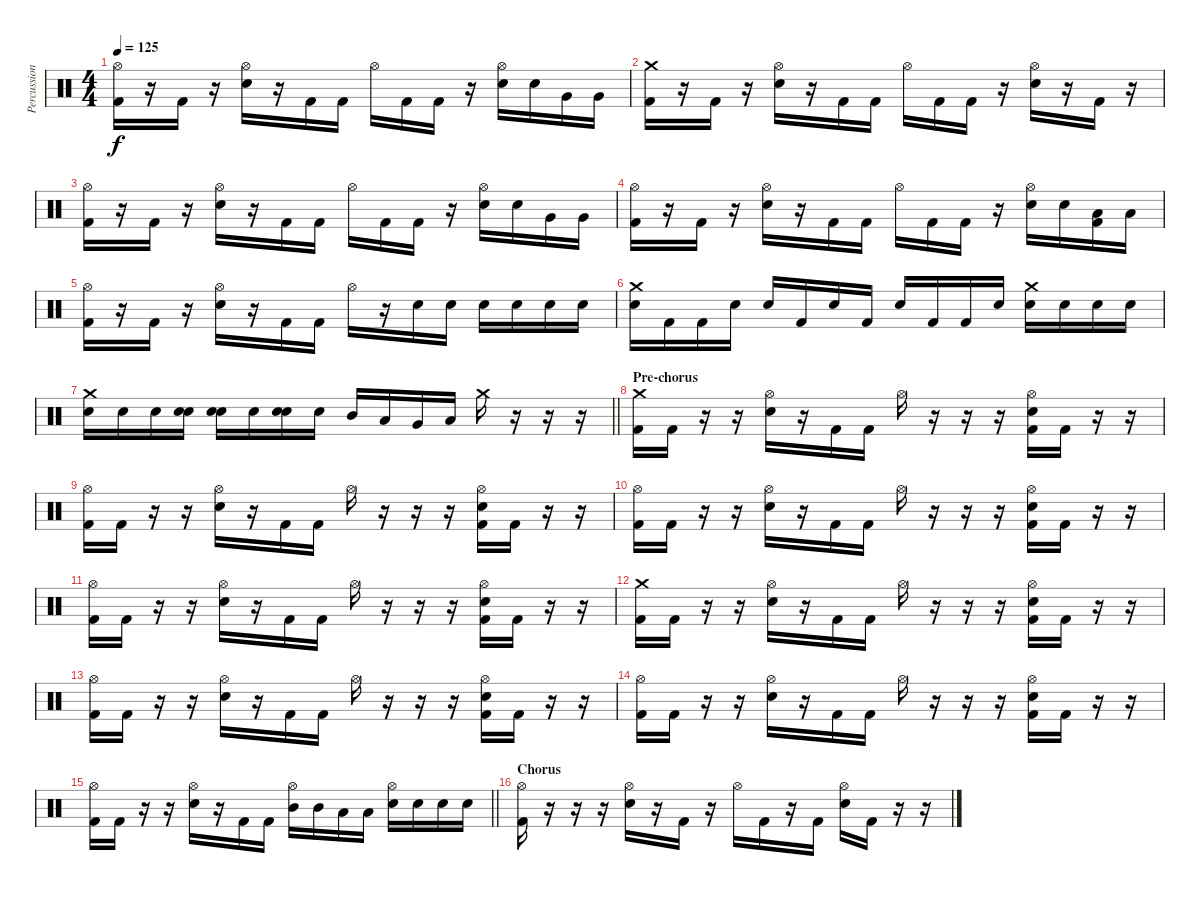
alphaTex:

\track ("Percussion" "Percussion") {instrument percussion}
\staff {score}
\articulation defaults
\ts (4 4)
\tempo 125
\clef neutral
\ks c
("Hi-Hat (open)" "Kick (hit) 2").16{dy f} r.16 "Kick (hit) 2".16 r.16 ("Hi-Hat (open)" "Electric Snare (hit)").16 r.16 "Kick (hit) 2".16 "Kick (hit) 2".16 "Hi-Hat (open)".16 "Kick (hit) 2".16 "Kick (hit) 2".16 r.16 ("Hi-Hat (open)" "Electric Snare (hit)").16 "Electric Snare (hit)".16 "Very Low Tom (hit)".16 "Very Low Tom (hit)".16 |
("Crash medium (hit)" "Kick (hit) 2").16 r.16 "Kick (hit) 2".16 r.16 ("Hi-Hat (open)" "Electric Snare (hit)").16 r.16 "Kick (hit) 2".16 "Kick (hit) 2".16 "Hi-Hat (open)".16 "Kick (hit) 2".16 "Kick (hit) 2".16 r.16 ("Hi-Hat (open)" "Electric Snare (hit)").16 r.16 "Kick (hit) 2".16 r.16 |
("Hi-Hat (open)" "Kick (hit) 2").16 r.16 "Kick (hit) 2".16 r.16 ("Hi-Hat (open)" "Electric Snare (hit)").16 r.16 "Kick (hit) 2".16 "Kick (hit) 2".16 "Hi-Hat (open)".16 "Kick (hit) 2".16 "Kick (hit) 2".16 r.16 ("Hi-Hat (open)" "Electric Snare (hit)").16 "Electric Snare (hit)".16 "Very Low Tom (hit)".16 "Very Low Tom (hit)".16 |
("Hi-Hat (open)" "Kick (hit) 2").16 r.16 "Kick (hit) 2".16 r.16 ("Hi-Hat (open)" "Electric Snare (hit)").16 r.16 "Kick (hit) 2".16 "Kick (hit) 2".16 "Hi-Hat (open)".16 "Kick (hit) 2".16 "Kick (hit) 2".16 r.16 ("Hi-Hat (open)" "Electric Snare (hit)").16 "Electric Snare (hit)".16 ("Low Tom (hit)" "Kick (hit) 2").16 "Low Tom (hit)".16 |
("Hi-Hat (open)" "Kick (hit) 2").16 r.16 "Kick (hit) 2".16 r.16 ("Hi-Hat (open)" "Electric Snare (hit)").16 r.16 "Kick (hit) 2".16 "Kick (hit) 2".16 "Hi-Hat (open)".16 r.16 "Electric Snare (hit)".16 "Electric Snare (hit)".16 "Electric Snare (hit)".16 "Electric Snare (hit)".16 "Electric Snare (hit)".16 "Electric Snare (hit)".16 |
("Crash medium (hit)" "Electric Snare (hit)").16 "Kick (hit) 2".16 "Kick (hit) 2".16 "Electric Snare (hit)".16 "Electric Snare (hit)".16 "Kick (hit) 2".16 "Electric Snare (hit)".16 "Kick (hit) 2".16 "Electric Snare (hit)".16 "Kick (hit) 2".16 "Kick (hit) 2".16 "Electric Snare (hit)".16 ("Crash medium (hit)" "Electric Snare (hit)").16 "Electric Snare (hit)".16 "Electric Snare (hit)".16 "Electric Snare (hit)".16 |
\barLineRight lightlight
("Crash medium (hit)" "Electric Snare (hit)").16 "Electric Snare (hit)".16 "Electric Snare (hit)".16 ("Electric Snare (hit)" "Electric Snare (hit)").16 ("Electric Snare (hit)" "Electric Snare (hit)").16 "Electric Snare (hit)".16 ("Electric Snare (hit)" "Electric Snare (hit)").16 "Electric Snare (hit)".16 "Mid Tom (hit)".16 "Low Tom (hit)".16 "Very Low Tom (hit)".16 "Low Floor Tom (hit)".16 "Crash medium (hit)".16 r.16 r.16 r.16 |
\section ("" "Pre-chorus")
("Crash medium (hit)" "Kick (hit) 2").16 "Kick (hit) 2".16 r.16 r.16 ("Hi-Hat (open)" "Electric Snare (hit)").16 r.16 "Kick (hit) 2".16 "Kick (hit) 2".16 "Hi-Hat (open)".16 r.16 r.16 r.16 ("Hi-Hat (open)" "Electric Snare (hit)" "Kick (hit) 2").16 "Kick (hit) 2".16 r.16 r.16 |
("Hi-Hat (open)" "Kick (hit) 2").16 "Kick (hit) 2".16 r.16 r.16 ("Hi-Hat (open)" "Electric Snare (hit)").16 r.16 "Kick (hit) 2".16 "Kick (hit) 2".16 "Hi-Hat (open)".16 r.16 r.16 r.16 ("Hi-Hat (open)" "Electric Snare (hit)" "Kick (hit) 2").16 "Kick (hit) 2".16 r.16 r.16 |
("Hi-Hat (open)" "Kick (hit) 2").16 "Kick (hit) 2".16 r.16 r.16 ("Hi-Hat (open)" "Electric Snare (hit)").16 r.16 "Kick (hit) 2".16 "Kick (hit) 2".16 "Hi-Hat (open)".16 r.16 r.16 r.16 ("Hi-Hat (open)" "Electric Snare (hit)" "Kick (hit) 2").16 "Kick (hit) 2".16 r.16 r.16 |
("Hi-Hat (open)" "Kick (hit) 2").16 "Kick (hit) 2".16 r.16 r.16 ("Hi-Hat (open)" "Electric Snare (hit)").16 r.16 "Kick (hit) 2".16 "Kick (hit) 2".16 "Hi-Hat (open)".16 r.16 r.16 r.16 ("Hi-Hat (open)" "Electric Snare (hit)" "Kick (hit) 2").16 "Kick (hit) 2".16 r.16 r.16 |
("Crash medium (hit)" "Kick (hit) 2").16 "Kick (hit) 2".16 r.16 r.16 ("Hi-Hat (open)" "Electric Snare (hit)").16 r.16 "Kick (hit) 2".16 "Kick (hit) 2".16 "Hi-Hat (open)".16 r.16 r.16 r.16 ("Hi-Hat (open)" "Electric Snare (hit)" "Kick (hit) 2").16 "Kick (hit) 2".16 r.16 r.16 |
("Hi-Hat (open)" "Kick (hit) 2").16 "Kick (hit) 2".16 r.16 r.16 ("Hi-Hat (open)" "Electric Snare (hit)").16 r.16 "Kick (hit) 2".16 "Kick (hit) 2".16 "Hi-Hat (open)".16 r.16 r.16 r.16 ("Hi-Hat (open)" "Electric Snare (hit)" "Kick (hit) 2").16 "Kick (hit) 2".16 r.16 r.16 |
("Hi-Hat (open)" "Kick (hit) 2").16 "Kick (hit) 2".16 r.16 r.16 ("Hi-Hat (open)" "Electric Snare (hit)").16 r.16 "Kick (hit) 2".16 "Kick (hit) 2".16 "Hi-Hat (open)".16 r.16 r.16 r.16 ("Hi-Hat (open)" "Electric Snare (hit)" "Kick (hit) 2").16 "Kick (hit) 2".16 r.16 r.16 |
\barLineRight lightlight
("Hi-Hat (open)" "Kick (hit) 2").16 "Kick (hit) 2".16 r.16 r.16 ("Hi-Hat (open)" "Electric Snare (hit)").16 r.16 "Kick (hit) 2".16 "Kick (hit) 2".16 ("Hi-Hat (open)" "Mid Tom (hit)").16 "Mid Tom (hit)".16 "Low Tom (hit)".16 "Low Tom (hit)".16 ("Hi-Hat (open)" "Electric Snare (hit)").16 "Electric Snare (hit)".16 "Electric Snare (hit)".16 "Electric Snare (hit)".16 |
\section ("" "Chorus")
("Hi-Hat (open)" "Kick (hit) 2").16 r.16 r.16 r.16 ("Hi-Hat (open)" "Electric Snare (hit)").16 r.16 "Kick (hit) 2".16 r.16 "Hi-Hat (open)".16 "Kick (hit) 2".16 r.16 "Kick (hit) 2".16 ("Hi-Hat (open)" "Electric Snare (hit)").16 "Kick (hit) 2".16 r.16 r.16
